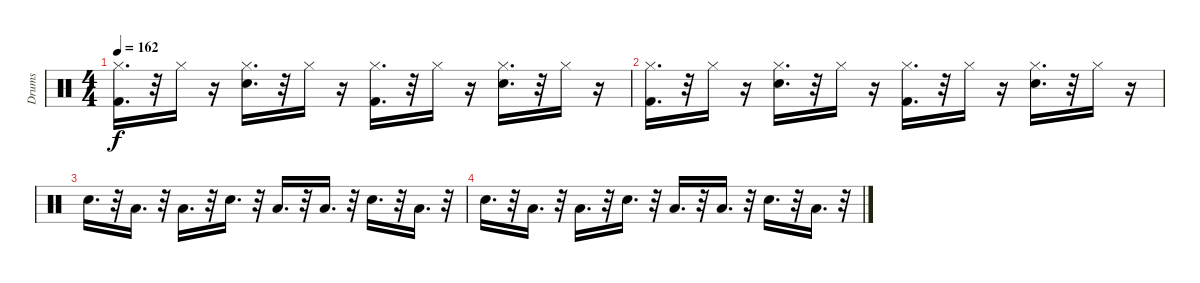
\track ("Drums" "Drums") {instrument percussion}
\staff {score}
\articulation defaults
\ts (4 4)
\tempo 162
\clef neutral
\ks c
("Hi-Hat (closed)" "Kick (hit) 2").16{d dy f} r.32 "Hi-Hat (closed)".16 r.16 ("Hi-Hat (closed)" "Snare (hit) 2").16{d} r.32 "Hi-Hat (closed)".16 r.16 ("Hi-Hat (closed)" "Kick (hit) 2").16{d} r.32 "Hi-Hat (closed)".16 r.16 ("Hi-Hat (closed)" "Snare (hit) 2").16{d} r.32 "Hi-Hat (closed)".16 r.16 |
("Hi-Hat (closed)" "Kick (hit) 2").16{d} r.32 "Hi-Hat (closed)".16 r.16 ("Hi-Hat (closed)" "Snare (hit) 2").16{d} r.32 "Hi-Hat (closed)".16 r.16 ("Hi-Hat (closed)" "Kick (hit) 2").16{d} r.32 "Hi-Hat (closed)".16 r.16 ("Hi-Hat (closed)" "Snare (hit) 2").16{d} r.32 "Hi-Hat (closed)".16 r.16 |
"Snare (hit) 2".16{d} r.32 "Low Floor Tom (hit)".16{d} r.32 "Low Floor Tom (hit)".16{d} r.32 "Snare (hit) 2".16{d} r.32 "Low Floor Tom (hit)".16{d} r.32 "Low Floor Tom (hit)".16{d} r.32 "Snare (hit) 2".16{d} r.32 "Low Floor Tom (hit)".16{d} r.32 |
"Snare (hit) 2".16{d} r.32 "Low Floor Tom (hit)".16{d} r.32 "Low Floor Tom (hit)".16{d} r.32 "Snare (hit) 2".16{d} r.32 "Low Floor Tom (hit)".16{d} r.32 "Low Floor Tom (hit)".16{d} r.32 "Snare (hit) 2".16{d} r.32 "Low Floor Tom (hit)".16{d} r.32
